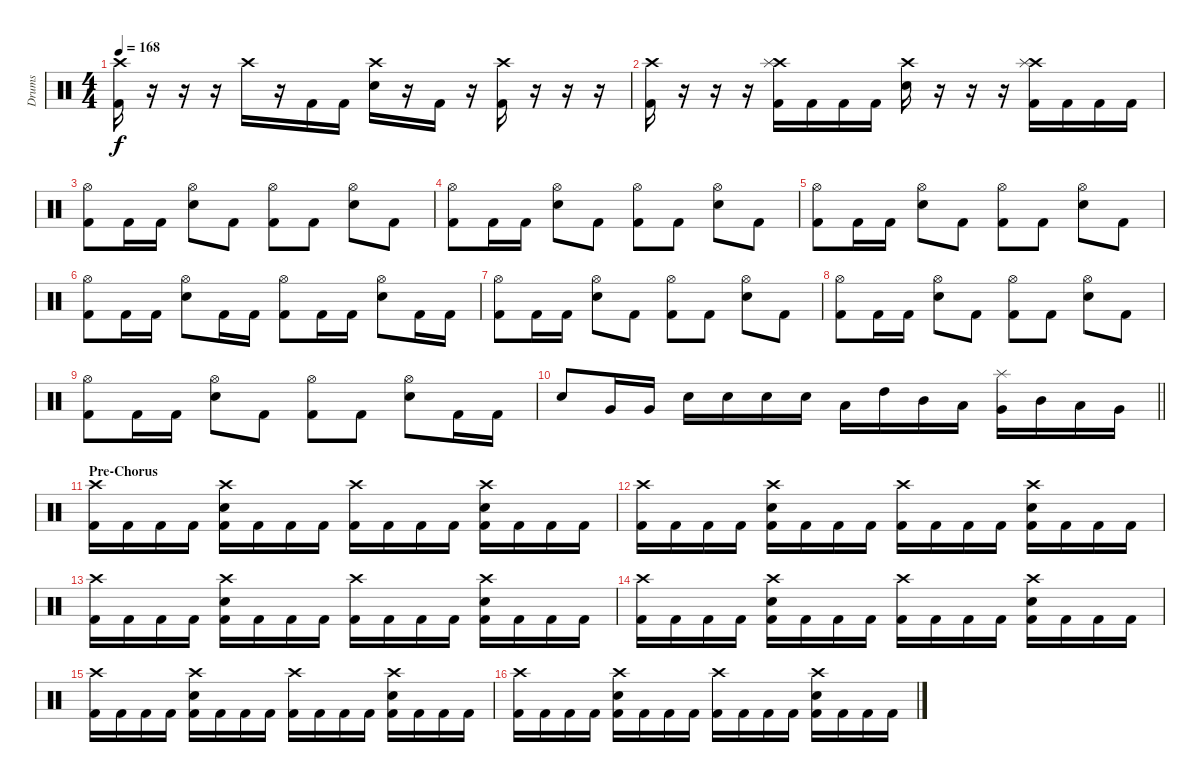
\track ("Drums" "Drums") {instrument percussion}
\staff {score}
\articulation defaults
\ts (4 4)
\tempo 168
\clef neutral
\ks c
("Crash high (hit)" "Kick (hit) 2").16{dy f} r.16 r.16 r.16 "Crash high (hit)".16 r.16 "Kick (hit) 2".16 "Kick (hit) 2".16 ("Crash high (hit)" "Snare (hit) 2").16 r.16 "Kick (hit) 2".16 r.16 ("Crash high (hit)" "Kick (hit) 2").16 r.16 r.16 r.16 |
("Crash high (hit)" "Kick (hit) 2").16 r.16 r.16 r.16 ("Crash high (hit)" "Splash (hit)" "Kick (hit) 2").16 "Kick (hit) 2".16 "Kick (hit) 2".16 "Kick (hit) 2".16 ("Crash high (hit)" "Snare (hit) 2").16 r.16 r.16 r.16 ("Crash high (hit)" "Splash (hit)" "Kick (hit) 2").16 "Kick (hit) 2".16 "Kick (hit) 2".16 "Kick (hit) 2".16 |
("Hi-Hat (open)" "Kick (hit) 2").8 "Kick (hit) 2".16 "Kick (hit) 2".16 ("Hi-Hat (open)" "Snare (hit) 2").8 "Kick (hit) 2".8 ("Hi-Hat (open)" "Kick (hit) 2").8 "Kick (hit) 2".8 ("Hi-Hat (open)" "Snare (hit) 2").8 "Kick (hit) 2".8 |
("Hi-Hat (open)" "Kick (hit) 2").8 "Kick (hit) 2".16 "Kick (hit) 2".16 ("Hi-Hat (open)" "Snare (hit) 2").8 "Kick (hit) 2".8 ("Hi-Hat (open)" "Kick (hit) 2").8 "Kick (hit) 2".8 ("Hi-Hat (open)" "Snare (hit) 2").8 "Kick (hit) 2".8 |
("Hi-Hat (open)" "Kick (hit) 2").8 "Kick (hit) 2".16 "Kick (hit) 2".16 ("Hi-Hat (open)" "Snare (hit) 2").8 "Kick (hit) 2".8 ("Hi-Hat (open)" "Kick (hit) 2").8 "Kick (hit) 2".8 ("Hi-Hat (open)" "Snare (hit) 2").8 "Kick (hit) 2".8 |
("Hi-Hat (open)" "Kick (hit) 2").8 "Kick (hit) 2".16 "Kick (hit) 2".16 ("Hi-Hat (open)" "Snare (hit) 2").8 "Kick (hit) 2".16 "Kick (hit) 2".16 ("Hi-Hat (open)" "Kick (hit) 2").8 "Kick (hit) 2".16 "Kick (hit) 2".16 ("Hi-Hat (open)" "Snare (hit) 2").8 "Kick (hit) 2".16 "Kick (hit) 2".16 |
("Hi-Hat (open)" "Kick (hit) 2").8 "Kick (hit) 2".16 "Kick (hit) 2".16 ("Hi-Hat (open)" "Snare (hit) 2").8 "Kick (hit) 2".8 ("Hi-Hat (open)" "Kick (hit) 2").8 "Kick (hit) 2".8 ("Hi-Hat (open)" "Snare (hit) 2").8 "Kick (hit) 2".8 |
("Hi-Hat (open)" "Kick (hit) 2").8 "Kick (hit) 2".16 "Kick (hit) 2".16 ("Hi-Hat (open)" "Snare (hit) 2").8 "Kick (hit) 2".8 ("Hi-Hat (open)" "Kick (hit) 2").8 "Kick (hit) 2".8 ("Hi-Hat (open)" "Snare (hit) 2").8 "Kick (hit) 2".8 |
("Hi-Hat (open)" "Kick (hit) 2").8 "Kick (hit) 2".16 "Kick (hit) 2".16 ("Hi-Hat (open)" "Snare (hit) 2").8 "Kick (hit) 2".8 ("Hi-Hat (open)" "Kick (hit) 2").8 "Kick (hit) 2".8 ("Hi-Hat (open)" "Snare (hit) 2").8 "Kick (hit) 2".16 "Kick (hit) 2".16 |
\barLineRight lightlight "Snare (hit) 2".8 "Very Low Tom (hit)".16 "Very Low Tom (hit)".16 "Snare (hit) 2".16 "Snare (hit) 2".16 "Snare (hit) 2".16 "Snare (hit) 2".16 "Low Tom (hit)".16 "High Tom (hit)".16 "Mid Tom (hit)".16 "Low Tom (hit)".16
("Splash (hit)" "Very Low Tom (hit)").16 "Mid Tom (hit)".16 "Low Tom (hit)".16 "Very Low Tom (hit)".16 |
\section ("" "Pre-Chorus")
("Crash high (hit)" "Kick (hit) 2").16 "Kick (hit) 2".16 "Kick (hit) 2".16 "Kick (hit) 2".16 ("Crash high (hit)" "Snare (hit) 2" "Kick (hit) 2").16 "Kick (hit) 2".16 "Kick (hit) 2".16 "Kick (hit) 2".16 ("Crash high (hit)" "Kick (hit) 2").16 "Kick (hit) 2".16 "Kick (hit) 2".16 "Kick (hit) 2".16 ("Crash high (hit)" "Snare (hit) 2" "Kick (hit) 2").16 "Kick (hit) 2".16 "Kick (hit) 2".16 "Kick (hit) 2".16 |
("Crash high (hit)" "Kick (hit) 2").16 "Kick (hit) 2".16 "Kick (hit) 2".16 "Kick (hit) 2".16 ("Crash high (hit)" "Snare (hit) 2" "Kick (hit) 2").16 "Kick (hit) 2".16 "Kick (hit) 2".16 "Kick (hit) 2".16 ("Crash high (hit)" "Kick (hit) 2").16 "Kick (hit) 2".16 "Kick (hit) 2".16 "Kick (hit) 2".16 ("Crash high (hit)" "Snare (hit) 2" "Kick (hit) 2").16 "Kick (hit) 2".16 "Kick (hit) 2".16 "Kick (hit) 2".16 |
("Crash high (hit)" "Kick (hit) 2").16 "Kick (hit) 2".16 "Kick (hit) 2".16 "Kick (hit) 2".16 ("Crash high (hit)" "Snare (hit) 2" "Kick (hit) 2").16 "Kick (hit) 2".16 "Kick (hit) 2".16 "Kick (hit) 2".16 ("Crash high (hit)" "Kick (hit) 2").16 "Kick (hit) 2".16 "Kick (hit) 2".16 "Kick (hit) 2".16 ("Crash high (hit)" "Snare (hit) 2" "Kick (hit) 2").16 "Kick (hit) 2".16 "Kick (hit) 2".16 "Kick (hit) 2".16 |
("Crash high (hit)" "Kick (hit) 2").16 "Kick (hit) 2".16 "Kick (hit) 2".16 "Kick (hit) 2".16 ("Crash high (hit)" "Snare (hit) 2" "Kick (hit) 2").16 "Kick (hit) 2".16 "Kick (hit) 2".16 "Kick (hit) 2".16 ("Crash high (hit)" "Kick (hit) 2").16 "Kick (hit) 2".16 "Kick (hit) 2".16 "Kick (hit) 2".16 ("Crash high (hit)" "Snare (hit) 2" "Kick (hit) 2").16 "Kick (hit) 2".16 "Kick (hit) 2".16 "Kick (hit) 2".16 |
("Crash high (hit)" "Kick (hit) 2").16 "Kick (hit) 2".16 "Kick (hit) 2".16 "Kick (hit) 2".16 ("Crash high (hit)" "Snare (hit) 2" "Kick (hit) 2").16 "Kick (hit) 2".16 "Kick (hit) 2".16 "Kick (hit) 2".16 ("Crash high (hit)" "Kick (hit) 2").16 "Kick (hit) 2".16 "Kick (hit) 2".16 "Kick (hit) 2".16 ("Crash high (hit)" "Snare (hit) 2" "Kick (hit) 2").16 "Kick (hit) 2".16 "Kick (hit) 2".16 "Kick (hit) 2".16 |
("Crash high (hit)" "Kick (hit) 2").16 "Kick (hit) 2".16 "Kick (hit) 2".16 "Kick (hit) 2".16 ("Crash high (hit)" "Snare (hit) 2" "Kick (hit) 2").16 "Kick (hit) 2".16 "Kick (hit) 2".16 "Kick (hit) 2".16 ("Crash high (hit)" "Kick (hit) 2").16 "Kick (hit) 2".16 "Kick (hit) 2".16 "Kick (hit) 2".16 ("Crash high (hit)" "Snare (hit) 2" "Kick (hit) 2").16 "Kick (hit) 2".16 "Kick (hit) 2".16 "Kick (hit) 2".16
